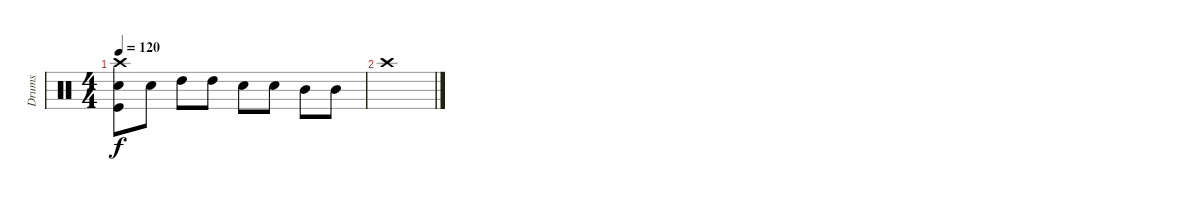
\track ("Drums" "Drums") {instrument percussion}
\staff {score}
\articulation defaults
\ts (4 4)
\tempo 120
\clef neutral
\ks c
("Crash high (hit)" "Snare (hit) 2" "Kick (hit)").8{dy f} "Snare (hit) 2".8 "High Tom (hit)".8 "High Tom (hit)".8 "Snare (hit) 2".8 "Snare (hit) 2".8 "Mid Tom (hit)".8 "Mid Tom (hit)".8 |
"Crash high (hit)".1
